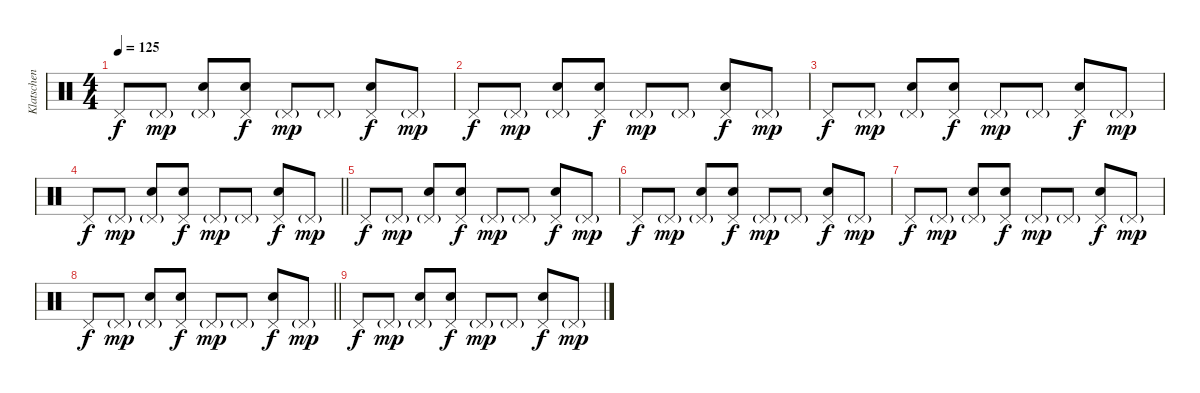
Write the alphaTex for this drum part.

\track ("Klatschen" "Klatschen") {instrument percussion}
\staff {score}
\articulation defaults
\ts (4 4)
\tempo 125
\clef neutral
\ks c "Pedal Hi-Hat (hit)".8{dy f} "Pedal Hi-Hat (hit)"{g}.8{dy mp}
("Pedal Hi-Hat (hit)"{g} "Hand Clap (hit)").8 ("Pedal Hi-Hat (hit)" "Hand Clap (hit)").8{dy f} "Pedal Hi-Hat (hit)"{g}.8{dy mp} "Pedal Hi-Hat (hit)"{g}.8 ("Pedal Hi-Hat (hit)" "Hand Clap (hit)").8{dy f} "Pedal Hi-Hat (hit)"{g}.8{dy mp} |
"Pedal Hi-Hat (hit)".8{dy f} "Pedal Hi-Hat (hit)"{g}.8{dy mp} ("Pedal Hi-Hat (hit)"{g} "Hand Clap (hit)").8 ("Pedal Hi-Hat (hit)" "Hand Clap (hit)").8{dy f} "Pedal Hi-Hat (hit)"{g}.8{dy mp} "Pedal Hi-Hat (hit)"{g}.8 ("Pedal Hi-Hat (hit)" "Hand Clap (hit)").8{dy f} "Pedal Hi-Hat (hit)"{g}.8{dy mp} |
"Pedal Hi-Hat (hit)".8{dy f} "Pedal Hi-Hat (hit)"{g}.8{dy mp} ("Pedal Hi-Hat (hit)"{g} "Hand Clap (hit)").8 ("Pedal Hi-Hat (hit)" "Hand Clap (hit)").8{dy f} "Pedal Hi-Hat (hit)"{g}.8{dy mp} "Pedal Hi-Hat (hit)"{g}.8 ("Pedal Hi-Hat (hit)" "Hand Clap (hit)").8{dy f} "Pedal Hi-Hat (hit)"{g}.8{dy mp} |
\barLineRight lightlight "Pedal Hi-Hat (hit)".8{dy f} "Pedal Hi-Hat (hit)"{g}.8{dy mp}
("Pedal Hi-Hat (hit)"{g} "Hand Clap (hit)").8 ("Pedal Hi-Hat (hit)" "Hand Clap (hit)").8{dy f} "Pedal Hi-Hat (hit)"{g}.8{dy mp} "Pedal Hi-Hat (hit)"{g}.8 ("Pedal Hi-Hat (hit)" "Hand Clap (hit)").8{dy f} "Pedal Hi-Hat (hit)"{g}.8{dy mp} |
"Pedal Hi-Hat (hit)".8{dy f} "Pedal Hi-Hat (hit)"{g}.8{dy mp} ("Pedal Hi-Hat (hit)"{g} "Hand Clap (hit)").8 ("Pedal Hi-Hat (hit)" "Hand Clap (hit)").8{dy f} "Pedal Hi-Hat (hit)"{g}.8{dy mp} "Pedal Hi-Hat (hit)"{g}.8 ("Pedal Hi-Hat (hit)" "Hand Clap (hit)").8{dy f} "Pedal Hi-Hat (hit)"{g}.8{dy mp} |
"Pedal Hi-Hat (hit)".8{dy f} "Pedal Hi-Hat (hit)"{g}.8{dy mp} ("Pedal Hi-Hat (hit)"{g} "Hand Clap (hit)").8 ("Pedal Hi-Hat (hit)" "Hand Clap (hit)").8{dy f} "Pedal Hi-Hat (hit)"{g}.8{dy mp} "Pedal Hi-Hat (hit)"{g}.8 ("Pedal Hi-Hat (hit)" "Hand Clap (hit)").8{dy f} "Pedal Hi-Hat (hit)"{g}.8{dy mp} |
"Pedal Hi-Hat (hit)".8{dy f} "Pedal Hi-Hat (hit)"{g}.8{dy mp} ("Pedal Hi-Hat (hit)"{g} "Hand Clap (hit)").8 ("Pedal Hi-Hat (hit)" "Hand Clap (hit)").8{dy f} "Pedal Hi-Hat (hit)"{g}.8{dy mp} "Pedal Hi-Hat (hit)"{g}.8 ("Pedal Hi-Hat (hit)" "Hand Clap (hit)").8{dy f} "Pedal Hi-Hat (hit)"{g}.8{dy mp} |
\barLineRight lightlight "Pedal Hi-Hat (hit)".8{dy f} "Pedal Hi-Hat (hit)"{g}.8{dy mp}
("Pedal Hi-Hat (hit)"{g} "Hand Clap (hit)").8 ("Pedal Hi-Hat (hit)" "Hand Clap (hit)").8{dy f} "Pedal Hi-Hat (hit)"{g}.8{dy mp} "Pedal Hi-Hat (hit)"{g}.8 ("Pedal Hi-Hat (hit)" "Hand Clap (hit)").8{dy f} "Pedal Hi-Hat (hit)"{g}.8{dy mp} |
"Pedal Hi-Hat (hit)".8{dy f} "Pedal Hi-Hat (hit)"{g}.8{dy mp} ("Pedal Hi-Hat (hit)"{g} "Hand Clap (hit)").8 ("Pedal Hi-Hat (hit)" "Hand Clap (hit)").8{dy f} "Pedal Hi-Hat (hit)"{g}.8{dy mp} "Pedal Hi-Hat (hit)"{g}.8 ("Pedal Hi-Hat (hit)" "Hand Clap (hit)").8{dy f} "Pedal Hi-Hat (hit)"{g}.8{dy mp}
